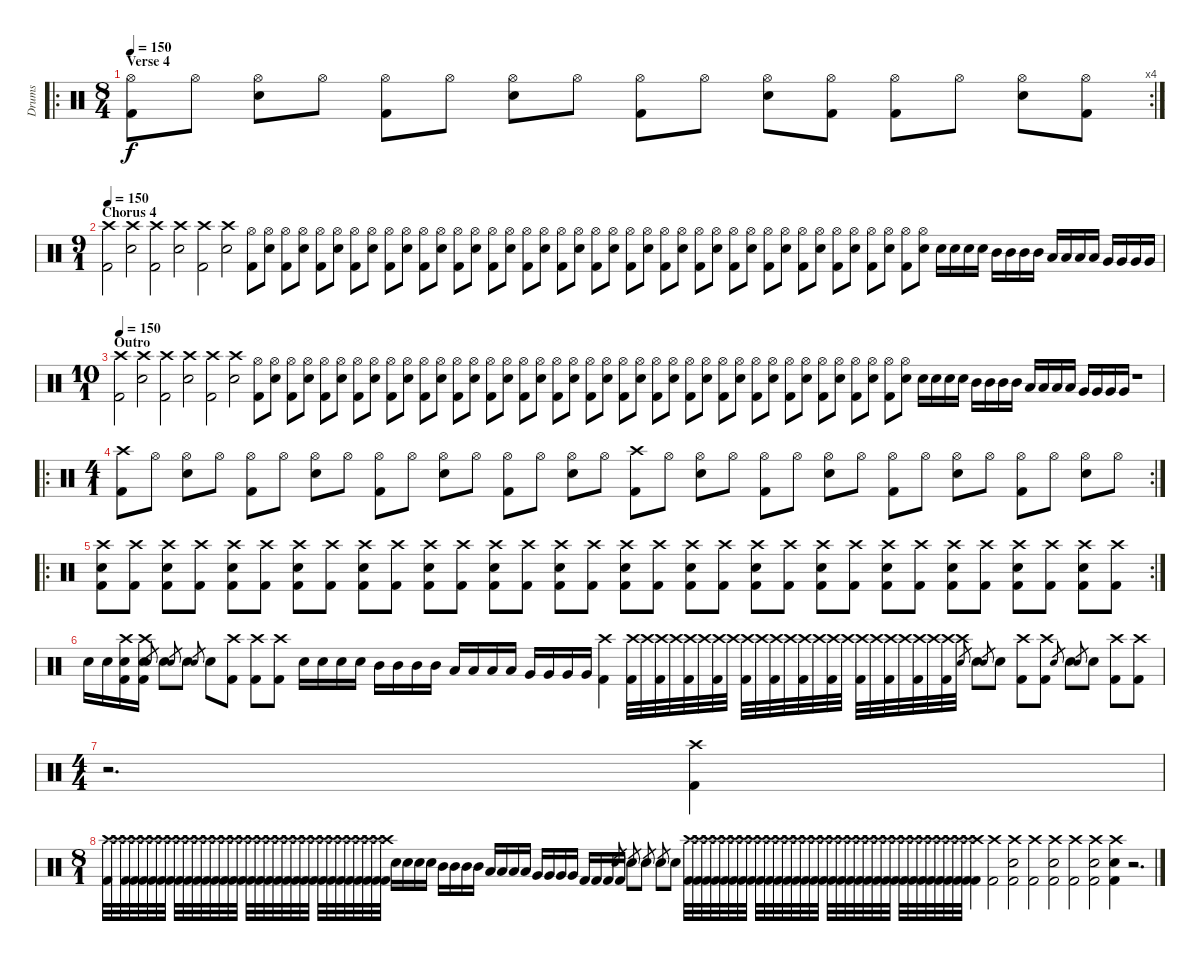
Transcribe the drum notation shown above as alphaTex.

\track ("Drums" "Drums") {instrument percussion}
\staff {score}
\articulation defaults
\ro
\rc 4
\ts (8 4)
\section ("" "Verse 4")
\tempo 150
\clef neutral
\ks c
("Hi-Hat (open)" "Kick (hit) 2").8{dy f} "Hi-Hat (open)".8 ("Hi-Hat (open)" "Electric Snare (hit)").8 "Hi-Hat (open)".8 ("Hi-Hat (open)" "Kick (hit) 2").8 "Hi-Hat (open)".8 ("Hi-Hat (open)" "Electric Snare (hit)").8 "Hi-Hat (open)".8 ("Hi-Hat (open)" "Kick (hit) 2").8 "Hi-Hat (open)".8 ("Hi-Hat (open)" "Electric Snare (hit)").8 ("Hi-Hat (open)" "Kick (hit) 2").8 ("Hi-Hat (open)" "Kick (hit) 2").8 "Hi-Hat (open)".8 ("Hi-Hat (open)" "Electric Snare (hit)").8 ("Hi-Hat (open)" "Kick (hit) 2").8 |
\ts (9 1)
\section ("" "Chorus 4")
\tempo 150
("Crash high (hit)" "Kick (hit) 2").2 ("Crash high (hit)" "Electric Snare (hit)").2 ("Crash high (hit)" "Kick (hit) 2").2 ("Crash high (hit)" "Electric Snare (hit)").2 ("Crash high (hit)" "Kick (hit) 2").2 ("Crash high (hit)" "Electric Snare (hit)").2 ("Hi-Hat (open)" "Kick (hit) 2").8 ("Hi-Hat (open)" "Electric Snare (hit)").8 ("Hi-Hat (open)" "Kick (hit) 2").8 ("Hi-Hat (open)" "Electric Snare (hit)").8 ("Hi-Hat (open)" "Kick (hit) 2").8 ("Hi-Hat (open)" "Electric Snare (hit)").8 ("Hi-Hat (open)" "Kick (hit) 2").8 ("Hi-Hat (open)" "Electric Snare (hit)").8 ("Hi-Hat (open)" "Kick (hit) 2").8 ("Hi-Hat (open)" "Electric Snare (hit)").8 ("Hi-Hat (open)" "Kick (hit) 2").8 ("Hi-Hat (open)" "Electric Snare (hit)").8 ("Hi-Hat (open)" "Kick (hit) 2").8 ("Hi-Hat (open)" "Electric Snare (hit)").8 ("Hi-Hat (open)" "Kick (hit) 2").8 ("Hi-Hat (open)" "Electric Snare (hit)").8 ("Hi-Hat (open)" "Kick (hit) 2").8 ("Hi-Hat (open)" "Electric Snare (hit)").8 ("Hi-Hat (open)" "Kick (hit) 2").8 ("Hi-Hat (open)" "Electric Snare (hit)").8 ("Hi-Hat (open)" "Kick (hit) 2").8 ("Hi-Hat (open)" "Electric Snare (hit)").8 ("Hi-Hat (open)" "Kick (hit) 2").8 ("Hi-Hat (open)" "Electric Snare (hit)").8 ("Hi-Hat (open)" "Kick (hit) 2").8 ("Hi-Hat (open)" "Electric Snare (hit)").8 ("Hi-Hat (open)" "Kick (hit) 2").8 ("Hi-Hat (open)" "Electric Snare (hit)").8 ("Hi-Hat (open)" "Kick (hit) 2").8 ("Hi-Hat (open)" "Electric Snare (hit)").8 ("Hi-Hat (open)" "Kick (hit) 2").8 ("Hi-Hat (open)" "Electric Snare (hit)").8 ("Hi-Hat (open)" "Kick (hit) 2").8 ("Hi-Hat (open)" "Electric Snare (hit)").8 ("Hi-Hat (open)" "Kick (hit) 2").8 ("Hi-Hat (open)" "Electric Snare (hit)").8 ("Hi-Hat (open)" "Kick (hit) 2").8 ("Hi-Hat (open)" "Electric Snare (hit)").8 ("Hi-Hat (open)" "Kick (hit) 2").8 ("Hi-Hat (open)" "Electric Snare (hit)").8 "Electric Snare (hit)".16 "Electric Snare (hit)".16 "Electric Snare (hit)".16 "Electric Snare (hit)".16 "Mid Tom (hit)".16 "Mid Tom (hit)".16 "Mid Tom (hit)".16 "Mid Tom (hit)".16 "Low Tom (hit)".16 "Low Tom (hit)".16 "Low Tom (hit)".16 "Low Tom (hit)".16 "Very Low Tom (hit)".16 "Very Low Tom (hit)".16 "Very Low Tom (hit)".16 "Very Low Tom (hit)".16 |
\ts (10 1)
\section ("" "Outro")
\tempo 150
("Crash high (hit)" "Kick (hit) 2").2 ("Crash high (hit)" "Electric Snare (hit)").2 ("Crash high (hit)" "Kick (hit) 2").2 ("Crash high (hit)" "Electric Snare (hit)").2 ("Crash high (hit)" "Kick (hit) 2").2 ("Crash high (hit)" "Electric Snare (hit)").2 ("Hi-Hat (open)" "Kick (hit) 2").8 ("Hi-Hat (open)" "Electric Snare (hit)").8 ("Hi-Hat (open)" "Kick (hit) 2").8 ("Hi-Hat (open)" "Electric Snare (hit)").8 ("Hi-Hat (open)" "Kick (hit) 2").8 ("Hi-Hat (open)" "Electric Snare (hit)").8 ("Hi-Hat (open)" "Kick (hit) 2").8 ("Hi-Hat (open)" "Electric Snare (hit)").8 ("Hi-Hat (open)" "Kick (hit) 2").8 ("Hi-Hat (open)" "Electric Snare (hit)").8 ("Hi-Hat (open)" "Kick (hit) 2").8 ("Hi-Hat (open)" "Electric Snare (hit)").8 ("Hi-Hat (open)" "Kick (hit) 2").8 ("Hi-Hat (open)" "Electric Snare (hit)").8 ("Hi-Hat (open)" "Kick (hit) 2").8 ("Hi-Hat (open)" "Electric Snare (hit)").8 ("Hi-Hat (open)" "Kick (hit) 2").8 ("Hi-Hat (open)" "Electric Snare (hit)").8 ("Hi-Hat (open)" "Kick (hit) 2").8 ("Hi-Hat (open)" "Electric Snare (hit)").8 ("Hi-Hat (open)" "Kick (hit) 2").8 ("Hi-Hat (open)" "Electric Snare (hit)").8 ("Hi-Hat (open)" "Kick (hit) 2").8 ("Hi-Hat (open)" "Electric Snare (hit)").8 ("Hi-Hat (open)" "Kick (hit) 2").8 ("Hi-Hat (open)" "Electric Snare (hit)").8 ("Hi-Hat (open)" "Kick (hit) 2").8 ("Hi-Hat (open)" "Electric Snare (hit)").8 ("Hi-Hat (open)" "Kick (hit) 2").8 ("Hi-Hat (open)" "Electric Snare (hit)").8 ("Hi-Hat (open)" "Kick (hit) 2").8 ("Hi-Hat (open)" "Electric Snare (hit)").8 ("Hi-Hat (open)" "Kick (hit) 2").8 ("Hi-Hat (open)" "Electric Snare (hit)").8 ("Hi-Hat (open)" "Kick (hit) 2").8 ("Hi-Hat (open)" "Electric Snare (hit)").8 ("Hi-Hat (open)" "Kick (hit) 2").8 ("Hi-Hat (open)" "Electric Snare (hit)").8 ("Hi-Hat (open)" "Kick (hit) 2").8 ("Hi-Hat (open)" "Electric Snare (hit)").8 "Electric Snare (hit)".16 "Electric Snare (hit)".16 "Electric Snare (hit)".16 "Electric Snare (hit)".16 "Mid Tom (hit)".16 "Mid Tom (hit)".16 "Mid Tom (hit)".16 "Mid Tom (hit)".16 "Low Tom (hit)".16 "Low Tom (hit)".16 "Low Tom (hit)".16 "Low Tom (hit)".16 "Very Low Tom (hit)".16 "Very Low Tom (hit)".16 "Very Low Tom (hit)".16 "Very Low Tom (hit)".16 r.1 |
\ro
\rc 2
\ts (4 1)
("Crash high (hit)" "Kick (hit) 2").8 "Hi-Hat (open)".8 ("Hi-Hat (open)" "Electric Snare (hit)").8 "Hi-Hat (open)".8 ("Hi-Hat (open)" "Kick (hit) 2").8 "Hi-Hat (open)".8 ("Hi-Hat (open)" "Electric Snare (hit)").8 "Hi-Hat (open)".8 ("Hi-Hat (open)" "Kick (hit) 2").8 "Hi-Hat (open)".8 ("Hi-Hat (open)" "Electric Snare (hit)").8 "Hi-Hat (open)".8 ("Hi-Hat (open)" "Kick (hit) 2").8 "Hi-Hat (open)".8 ("Hi-Hat (open)" "Electric Snare (hit)").8 "Hi-Hat (open)".8 ("Crash high (hit)" "Kick (hit) 2").8 "Hi-Hat (open)".8 ("Hi-Hat (open)" "Electric Snare (hit)").8 "Hi-Hat (open)".8 ("Hi-Hat (open)" "Kick (hit) 2").8 "Hi-Hat (open)".8 ("Hi-Hat (open)" "Electric Snare (hit)").8 "Hi-Hat (open)".8 ("Hi-Hat (open)" "Kick (hit) 2").8 "Hi-Hat (open)".8 ("Hi-Hat (open)" "Electric Snare (hit)").8 "Hi-Hat (open)".8 ("Hi-Hat (open)" "Kick (hit) 2").8 "Hi-Hat (open)".8 ("Hi-Hat (open)" "Electric Snare (hit)").8 "Hi-Hat (open)".8 |
\ro
\rc 2
("Crash high (hit)" "Kick (hit) 2" "Electric Snare (hit)").8 ("Crash high (hit)" "Kick (hit) 2").8 ("Crash high (hit)" "Kick (hit) 2" "Electric Snare (hit)").8 ("Crash high (hit)" "Kick (hit) 2").8 ("Crash high (hit)" "Kick (hit) 2" "Electric Snare (hit)").8 ("Crash high (hit)" "Kick (hit) 2").8 ("Crash high (hit)" "Kick (hit) 2" "Electric Snare (hit)").8 ("Crash high (hit)" "Kick (hit) 2").8 ("Crash high (hit)" "Kick (hit) 2" "Electric Snare (hit)").8 ("Crash high (hit)" "Kick (hit) 2").8 ("Crash high (hit)" "Kick (hit) 2" "Electric Snare (hit)").8 ("Crash high (hit)" "Kick (hit) 2").8 ("Crash high (hit)" "Kick (hit) 2" "Electric Snare (hit)").8 ("Crash high (hit)" "Kick (hit) 2").8 ("Crash high (hit)" "Kick (hit) 2" "Electric Snare (hit)").8 ("Crash high (hit)" "Kick (hit) 2").8 ("Crash high (hit)" "Kick (hit) 2" "Electric Snare (hit)").8 ("Crash high (hit)" "Kick (hit) 2").8 ("Crash high (hit)" "Kick (hit) 2" "Electric Snare (hit)").8 ("Crash high (hit)" "Kick (hit) 2").8 ("Crash high (hit)" "Kick (hit) 2" "Electric Snare (hit)").8 ("Crash high (hit)" "Kick (hit) 2").8 ("Crash high (hit)" "Kick (hit) 2" "Electric Snare (hit)").8 ("Crash high (hit)" "Kick (hit) 2").8 ("Crash high (hit)" "Kick (hit) 2" "Electric Snare (hit)").8 ("Crash high (hit)" "Kick (hit) 2").8 ("Crash high (hit)" "Kick (hit) 2" "Electric Snare (hit)").8 ("Crash high (hit)" "Kick (hit) 2").8 ("Crash high (hit)" "Kick (hit) 2" "Electric Snare (hit)").8 ("Crash high (hit)" "Kick (hit) 2").8 ("Crash high (hit)" "Kick (hit) 2" "Electric Snare (hit)").8 ("Crash high (hit)" "Kick (hit) 2").8 |
"Electric Snare (hit)".16 "Electric Snare (hit)".16 ("Crash high (hit)" "Electric Snare (hit)" "Kick (hit) 2").16 ("Crash high (hit)" "Electric Snare (hit)" "Kick (hit) 2").16 "Electric Snare (hit)".8{gr} "Electric Snare (hit)".8 "Electric Snare (hit)".8{gr} "Electric Snare (hit)".8 "Electric Snare (hit)".8{gr} "Electric Snare (hit)".8 ("Crash high (hit)" "Kick (hit) 2").8 ("Crash high (hit)" "Kick (hit) 2").8 ("Crash high (hit)" "Kick (hit) 2").8 "Electric Snare (hit)".16 "Electric Snare (hit)".16 "Electric Snare (hit)".16 "Electric Snare (hit)".16 "Mid Tom (hit)".16 "Mid Tom (hit)".16 "Mid Tom (hit)".16 "Mid Tom (hit)".16 "Low Tom (hit)".16 "Low Tom (hit)".16 "Low Tom (hit)".16 "Low Tom (hit)".16 "Very Low Tom (hit)".16 "Very Low Tom (hit)".16 "Very Low Tom (hit)".16 "Very Low Tom (hit)".16 ("Crash high (hit)" "Kick (hit) 2").4 ("Crash high (hit)" "Kick (hit) 2").32 "Crash high (hit)".32 ("Crash high (hit)" "Kick (hit) 2").32 "Crash high (hit)".32 ("Crash high (hit)" "Kick (hit) 2").32 "Crash high (hit)".32 ("Crash high (hit)" "Kick (hit) 2").32 "Crash high (hit)".32 ("Crash high (hit)" "Kick (hit) 2").32 "Crash high (hit)".32 ("Crash high (hit)" "Kick (hit) 2").32 "Crash high (hit)".32 ("Crash high (hit)" "Kick (hit) 2").32 "Crash high (hit)".32 ("Crash high (hit)" "Kick (hit) 2").32 "Crash high (hit)".32 ("Crash high (hit)" "Kick (hit) 2").32 "Crash high (hit)".32 ("Crash high (hit)" "Kick (hit) 2").32 "Crash high (hit)".32 ("Crash high (hit)" "Kick (hit) 2").32 "Crash high (hit)".32 ("Crash high (hit)" "Kick (hit) 2").32 "Crash high (hit)".32 "Electric Snare (hit)".8{gr} "Electric Snare (hit)".8 "Electric Snare (hit)".8{gr} "Electric Snare (hit)".8 ("Crash high (hit)" "Kick (hit) 2").8 ("Crash high (hit)" "Kick (hit) 2").8 "Electric Snare (hit)".8{gr} "Electric Snare (hit)".8 "Electric Snare (hit)".8{gr} "Electric Snare (hit)".8 ("Crash high (hit)" "Kick (hit) 2").8 ("Crash high (hit)" "Kick (hit) 2").8 |
\ts (4 4)
r.2{d} ("Crash high (hit)" "Kick (hit) 2").4 |
\ts (8 1)
("Crash high (hit)" "Kick (hit) 2").32 "Crash high (hit)".32 ("Crash high (hit)" "Kick (hit) 2").32 ("Crash high (hit)" "Kick (hit) 2").32 ("Crash high (hit)" "Kick (hit) 2").32 ("Crash high (hit)" "Kick (hit) 2").32 ("Crash high (hit)" "Kick (hit) 2").32 ("Crash high (hit)" "Kick (hit) 2").32 ("Crash high (hit)" "Kick (hit) 2").32 ("Crash high (hit)" "Kick (hit) 2").32 ("Crash high (hit)" "Kick (hit) 2").32 ("Crash high (hit)" "Kick (hit) 2").32 ("Crash high (hit)" "Kick (hit) 2").32 ("Crash high (hit)" "Kick (hit) 2").32 ("Crash high (hit)" "Kick (hit) 2").32 ("Crash high (hit)" "Kick (hit) 2").32 ("Crash high (hit)" "Kick (hit) 2").32 ("Crash high (hit)" "Kick (hit) 2").32 ("Crash high (hit)" "Kick (hit) 2").32 ("Crash high (hit)" "Kick (hit) 2").32 ("Crash high (hit)" "Kick (hit) 2").32 ("Crash high (hit)" "Kick (hit) 2").32 ("Crash high (hit)" "Kick (hit) 2").32 ("Crash high (hit)" "Kick (hit) 2").32 ("Crash high (hit)" "Kick (hit) 2").32 ("Crash high (hit)" "Kick (hit) 2").32 ("Crash high (hit)" "Kick (hit) 2").32 ("Crash high (hit)" "Kick (hit) 2").32 ("Crash high (hit)" "Kick (hit) 2").32 ("Crash high (hit)" "Kick (hit) 2").32 ("Crash high (hit)" "Kick (hit) 2").32 ("Crash high (hit)" "Kick (hit) 2").32 "Electric Snare (hit)".16 "Electric Snare (hit)".16 "Electric Snare (hit)".16 "Electric Snare (hit)".16 "Mid Tom (hit)".16 "Mid Tom (hit)".16 "Mid Tom (hit)".16 "Mid Tom (hit)".16 "Low Tom (hit)".16 "Low Tom (hit)".16 "Low Tom (hit)".16 "Low Tom (hit)".16 "Very Low Tom (hit)".16 "Very Low Tom (hit)".16 "Very Low Tom (hit)".16 "Very Low Tom (hit)".16 "Kick (hit) 2".16 "Kick (hit) 2".16 "Kick (hit) 2".16 "Kick (hit) 2".16 "Electric Snare (hit)".8{gr} "Electric Snare (hit)".8 "Electric Snare (hit)".8{gr} "Electric Snare (hit)".8 "Electric Snare (hit)".8{gr} "Electric Snare (hit)".8 "Electric Snare (hit)".8{gr} "Electric Snare (hit)".8 ("Crash high (hit)" "Kick (hit) 2").32 ("Crash high (hit)" "Kick (hit) 2").32 ("Crash high (hit)" "Kick (hit) 2").32 ("Crash high (hit)" "Kick (hit) 2").32 ("Crash high (hit)" "Kick (hit) 2").32 ("Crash high (hit)" "Kick (hit) 2").32 ("Crash high (hit)" "Kick (hit) 2").32 ("Crash high (hit)" "Kick (hit) 2").32 ("Crash high (hit)" "Kick (hit) 2").32 ("Crash high (hit)" "Kick (hit) 2").32 ("Crash high (hit)" "Kick (hit) 2").32 ("Crash high (hit)" "Kick (hit) 2").32 ("Crash high (hit)" "Kick (hit) 2").32 ("Crash high (hit)" "Kick (hit) 2").32 ("Crash high (hit)" "Kick (hit) 2").32 ("Crash high (hit)" "Kick (hit) 2").32 ("Crash high (hit)" "Kick (hit) 2").32 ("Crash high (hit)" "Kick (hit) 2").32 ("Crash high (hit)" "Kick (hit) 2").32 ("Crash high (hit)" "Kick (hit) 2").32 ("Crash high (hit)" "Kick (hit) 2").32 ("Crash high (hit)" "Kick (hit) 2").32 ("Crash high (hit)" "Kick (hit) 2").32 ("Crash high (hit)" "Kick (hit) 2").32 ("Crash high (hit)" "Kick (hit) 2").32 ("Crash high (hit)" "Kick (hit) 2").32 ("Crash high (hit)" "Kick (hit) 2").32 ("Crash high (hit)" "Kick (hit) 2").32 ("Crash high (hit)" "Kick (hit) 2").32 ("Crash high (hit)" "Kick (hit) 2").32 ("Crash high (hit)" "Kick (hit) 2").32 ("Crash high (hit)" "Kick (hit) 2").32 ("Crash high (hit)" "Kick (hit) 2").4 ("Crash high (hit)" "Kick (hit) 2").2 ("Crash high (hit)" "Electric Snare (hit)" "Kick (hit) 2").2 ("Crash high (hit)" "Kick (hit) 2").2 ("Crash high (hit)" "Electric Snare (hit)" "Kick (hit) 2").2 ("Crash high (hit)" "Kick (hit) 2").2 ("Crash high (hit)" "Electric Snare (hit)" "Kick (hit) 2").2 ("Crash high (hit)" "Electric Snare (hit)" "Kick (hit) 2").4 r.2{d}
